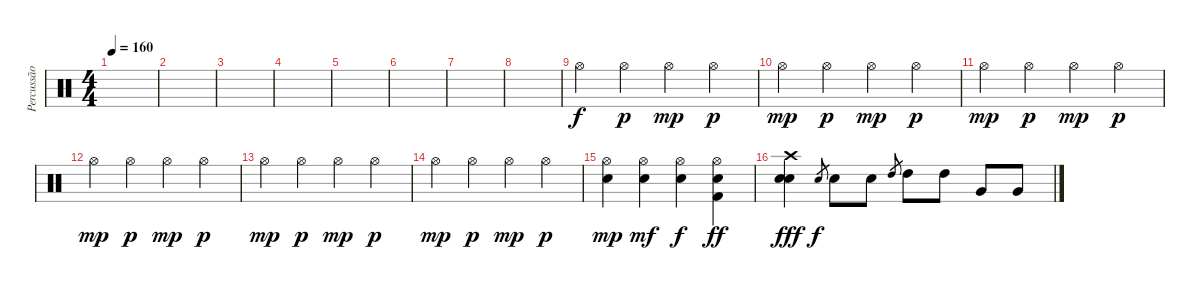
\track ("Percussão" "Percussão") {instrument percussion}
\staff {score}
\articulation defaults
\ts (4 4)
\tempo 160
\clef neutral
\ks c
|
|
|
|
|
|
|
|
"Hi-Hat (open)".4 "Hi-Hat (open)".4{dy p} "Hi-Hat (open)".4{dy mp} "Hi-Hat (open)".4{dy p} |
"Hi-Hat (open)".4{dy mp} "Hi-Hat (open)".4{dy p} "Hi-Hat (open)".4{dy mp} "Hi-Hat (open)".4{dy p} |
"Hi-Hat (open)".4{dy mp} "Hi-Hat (open)".4{dy p} "Hi-Hat (open)".4{dy mp} "Hi-Hat (open)".4{dy p} |
"Hi-Hat (open)".4{dy mp} "Hi-Hat (open)".4{dy p} "Hi-Hat (open)".4{dy mp} "Hi-Hat (open)".4{dy p} |
"Hi-Hat (open)".4{dy mp} "Hi-Hat (open)".4{dy p} "Hi-Hat (open)".4{dy mp} "Hi-Hat (open)".4{dy p} |
"Hi-Hat (open)".4{dy mp} "Hi-Hat (open)".4{dy p} "Hi-Hat (open)".4{dy mp} "Hi-Hat (open)".4{dy p} |
("Hi-Hat (open)" "Snare (hit) 2").4{dy mp} ("Hi-Hat (open)" "Snare (hit) 2").4{dy mf} ("Hi-Hat (open)" "Snare (hit) 2").4{dy f} ("Hi-Hat (open)" "Snare (hit) 2" "Kick (hit) 2").4{dy ff} |
("Crash high (hit)" "Snare (hit) 2" "Electric Snare (hit)").4{dy fff} "Electric Snare (hit)".8{gr dy f} "Electric Snare (hit)".8 "Electric Snare (hit)".8 "High Tom (hit)".8{gr} "High Tom (hit)".8 "High Tom (hit)".8 "Very Low Tom (hit)".8 "Very Low Tom (hit)".8
